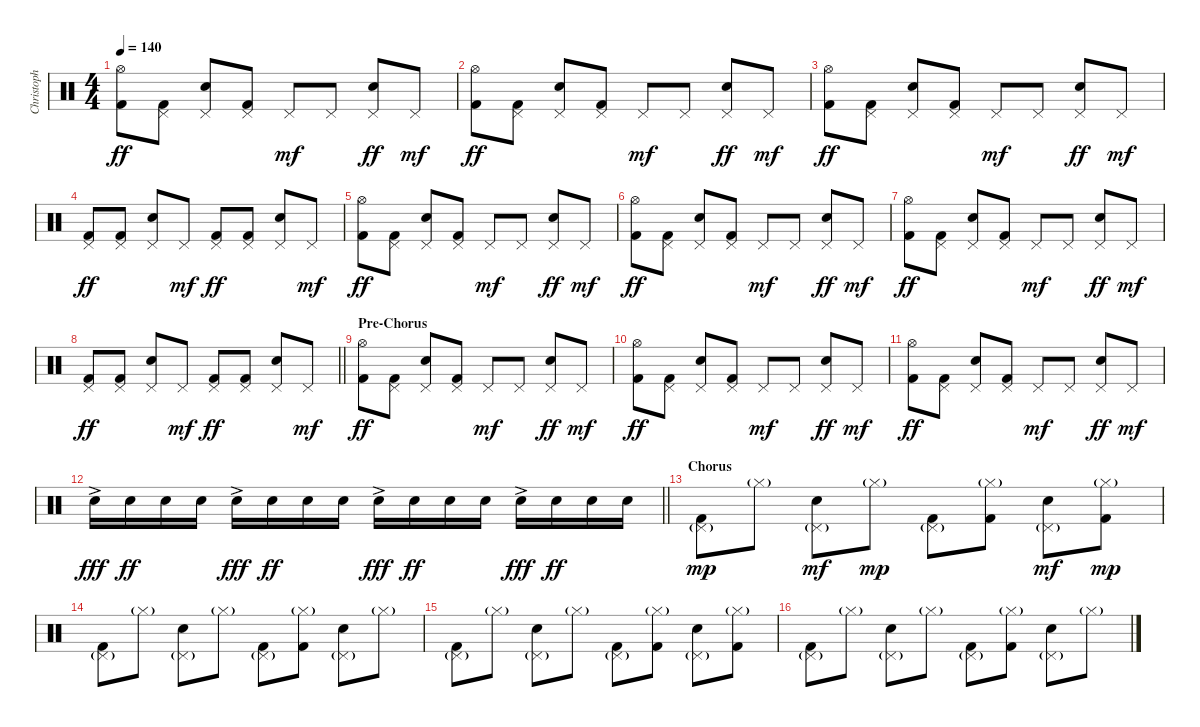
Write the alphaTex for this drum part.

\track ("Christoph" "Christoph") {instrument percussion}
\staff {score}
\articulation defaults
\ts (4 4)
\tempo 140
\clef neutral
\ks c
("Hi-Hat (open)" "Kick (hit) 2").8{dy ff} ("Pedal Hi-Hat (hit)" "Kick (hit) 2").8 ("Pedal Hi-Hat (hit)" "Electric Snare (hit)").8 ("Pedal Hi-Hat (hit)" "Kick (hit) 2").8 "Pedal Hi-Hat (hit)".8{dy mf} "Pedal Hi-Hat (hit)".8 ("Pedal Hi-Hat (hit)" "Electric Snare (hit)").8{dy ff} "Pedal Hi-Hat (hit)".8{dy mf} |
("Hi-Hat (open)" "Kick (hit) 2").8{dy ff} ("Pedal Hi-Hat (hit)" "Kick (hit) 2").8 ("Pedal Hi-Hat (hit)" "Electric Snare (hit)").8 ("Pedal Hi-Hat (hit)" "Kick (hit) 2").8 "Pedal Hi-Hat (hit)".8{dy mf} "Pedal Hi-Hat (hit)".8 ("Pedal Hi-Hat (hit)" "Electric Snare (hit)").8{dy ff} "Pedal Hi-Hat (hit)".8{dy mf} |
("Hi-Hat (open)" "Kick (hit) 2").8{dy ff} ("Pedal Hi-Hat (hit)" "Kick (hit) 2").8 ("Pedal Hi-Hat (hit)" "Electric Snare (hit)").8 ("Pedal Hi-Hat (hit)" "Kick (hit) 2").8 "Pedal Hi-Hat (hit)".8{dy mf} "Pedal Hi-Hat (hit)".8 ("Pedal Hi-Hat (hit)" "Electric Snare (hit)").8{dy ff} "Pedal Hi-Hat (hit)".8{dy mf} |
("Pedal Hi-Hat (hit)" "Kick (hit) 2").8{dy ff} ("Pedal Hi-Hat (hit)" "Kick (hit) 2").8 ("Pedal Hi-Hat (hit)" "Electric Snare (hit)").8 "Pedal Hi-Hat (hit)".8{dy mf} ("Pedal Hi-Hat (hit)" "Kick (hit) 2").8{dy ff} ("Pedal Hi-Hat (hit)" "Kick (hit) 2").8 ("Pedal Hi-Hat (hit)" "Electric Snare (hit)").8 "Pedal Hi-Hat (hit)".8{dy mf} |
("Hi-Hat (open)" "Kick (hit) 2").8{dy ff} ("Pedal Hi-Hat (hit)" "Kick (hit) 2").8 ("Pedal Hi-Hat (hit)" "Electric Snare (hit)").8 ("Pedal Hi-Hat (hit)" "Kick (hit) 2").8 "Pedal Hi-Hat (hit)".8{dy mf} "Pedal Hi-Hat (hit)".8 ("Pedal Hi-Hat (hit)" "Electric Snare (hit)").8{dy ff} "Pedal Hi-Hat (hit)".8{dy mf} |
("Hi-Hat (open)" "Kick (hit) 2").8{dy ff} ("Pedal Hi-Hat (hit)" "Kick (hit) 2").8 ("Pedal Hi-Hat (hit)" "Electric Snare (hit)").8 ("Pedal Hi-Hat (hit)" "Kick (hit) 2").8 "Pedal Hi-Hat (hit)".8{dy mf} "Pedal Hi-Hat (hit)".8 ("Pedal Hi-Hat (hit)" "Electric Snare (hit)").8{dy ff} "Pedal Hi-Hat (hit)".8{dy mf} |
("Hi-Hat (open)" "Kick (hit) 2").8{dy ff} ("Pedal Hi-Hat (hit)" "Kick (hit) 2").8 ("Pedal Hi-Hat (hit)" "Electric Snare (hit)").8 ("Pedal Hi-Hat (hit)" "Kick (hit) 2").8 "Pedal Hi-Hat (hit)".8{dy mf} "Pedal Hi-Hat (hit)".8 ("Pedal Hi-Hat (hit)" "Electric Snare (hit)").8{dy ff} "Pedal Hi-Hat (hit)".8{dy mf} |
\barLineRight lightlight
("Pedal Hi-Hat (hit)" "Kick (hit) 2").8{dy ff} ("Pedal Hi-Hat (hit)" "Kick (hit) 2").8 ("Pedal Hi-Hat (hit)" "Electric Snare (hit)").8 "Pedal Hi-Hat (hit)".8{dy mf} ("Pedal Hi-Hat (hit)" "Kick (hit) 2").8{dy ff} ("Pedal Hi-Hat (hit)" "Kick (hit) 2").8 ("Pedal Hi-Hat (hit)" "Electric Snare (hit)").8 "Pedal Hi-Hat (hit)".8{dy mf} |
\section ("" "Pre-Chorus")
("Hi-Hat (open)" "Kick (hit) 2").8{dy ff} ("Pedal Hi-Hat (hit)" "Kick (hit) 2").8 ("Pedal Hi-Hat (hit)" "Electric Snare (hit)").8 ("Pedal Hi-Hat (hit)" "Kick (hit) 2").8 "Pedal Hi-Hat (hit)".8{dy mf} "Pedal Hi-Hat (hit)".8 ("Pedal Hi-Hat (hit)" "Electric Snare (hit)").8{dy ff} "Pedal Hi-Hat (hit)".8{dy mf} |
("Hi-Hat (open)" "Kick (hit) 2").8{dy ff} ("Pedal Hi-Hat (hit)" "Kick (hit) 2").8 ("Pedal Hi-Hat (hit)" "Electric Snare (hit)").8 ("Pedal Hi-Hat (hit)" "Kick (hit) 2").8 "Pedal Hi-Hat (hit)".8{dy mf} "Pedal Hi-Hat (hit)".8 ("Pedal Hi-Hat (hit)" "Electric Snare (hit)").8{dy ff} "Pedal Hi-Hat (hit)".8{dy mf} |
("Hi-Hat (open)" "Kick (hit) 2").8{dy ff} ("Pedal Hi-Hat (hit)" "Kick (hit) 2").8 ("Pedal Hi-Hat (hit)" "Electric Snare (hit)").8 ("Pedal Hi-Hat (hit)" "Kick (hit) 2").8 "Pedal Hi-Hat (hit)".8{dy mf} "Pedal Hi-Hat (hit)".8 ("Pedal Hi-Hat (hit)" "Electric Snare (hit)").8{dy ff} "Pedal Hi-Hat (hit)".8{dy mf} |
\barLineRight lightlight "Electric Snare (hit)"{ac}.16{dy fff} "Electric Snare (hit)".16{dy ff} "Electric Snare (hit)".16 "Electric Snare (hit)".16 "Electric Snare (hit)"{ac}.16{dy fff} "Electric Snare (hit)".16{dy ff} "Electric Snare (hit)".16 "Electric Snare (hit)".16 "Electric Snare (hit)"{ac}.16{dy fff} "Electric Snare (hit)".16{dy ff} "Electric Snare (hit)".16 "Electric Snare (hit)".16 "Electric Snare (hit)"{ac}.16{dy fff} "Electric Snare (hit)".16{dy ff} "Electric Snare (hit)".16 "Electric Snare (hit)".16
|
\section ("" "Chorus")
("Pedal Hi-Hat (hit)"{g} "Kick (hit) 2").8{dy mp} "Hi-Hat (closed)"{g}.8 ("Pedal Hi-Hat (hit)"{g} "Electric Snare (hit)").8{dy mf} "Hi-Hat (closed)"{g}.8{dy mp} ("Pedal Hi-Hat (hit)"{g} "Kick (hit) 2").8 ("Hi-Hat (closed)"{g} "Kick (hit) 2").8 ("Pedal Hi-Hat (hit)"{g} "Electric Snare (hit)").8{dy mf} ("Hi-Hat (closed)"{g} "Kick (hit) 2").8{dy mp} |
("Pedal Hi-Hat (hit)"{g} "Kick (hit) 2").8 "Hi-Hat (closed)"{g}.8 ("Pedal Hi-Hat (hit)"{g} "Electric Snare (hit)").8 "Hi-Hat (closed)"{g}.8 ("Pedal Hi-Hat (hit)"{g} "Kick (hit) 2").8 ("Hi-Hat (closed)"{g} "Kick (hit) 2").8 ("Pedal Hi-Hat (hit)"{g} "Electric Snare (hit)").8 "Hi-Hat (closed)"{g}.8 |
("Pedal Hi-Hat (hit)"{g} "Kick (hit) 2").8 "Hi-Hat (closed)"{g}.8 ("Pedal Hi-Hat (hit)"{g} "Electric Snare (hit)").8 "Hi-Hat (closed)"{g}.8 ("Pedal Hi-Hat (hit)"{g} "Kick (hit) 2").8 ("Hi-Hat (closed)"{g} "Kick (hit) 2").8 ("Pedal Hi-Hat (hit)"{g} "Electric Snare (hit)").8 ("Hi-Hat (closed)"{g} "Kick (hit) 2").8 |
("Pedal Hi-Hat (hit)"{g} "Kick (hit) 2").8 "Hi-Hat (closed)"{g}.8 ("Pedal Hi-Hat (hit)"{g} "Electric Snare (hit)").8 "Hi-Hat (closed)"{g}.8 ("Pedal Hi-Hat (hit)"{g} "Kick (hit) 2").8 ("Hi-Hat (closed)"{g} "Kick (hit) 2").8 ("Pedal Hi-Hat (hit)"{g} "Electric Snare (hit)").8 "Hi-Hat (closed)"{g}.8
